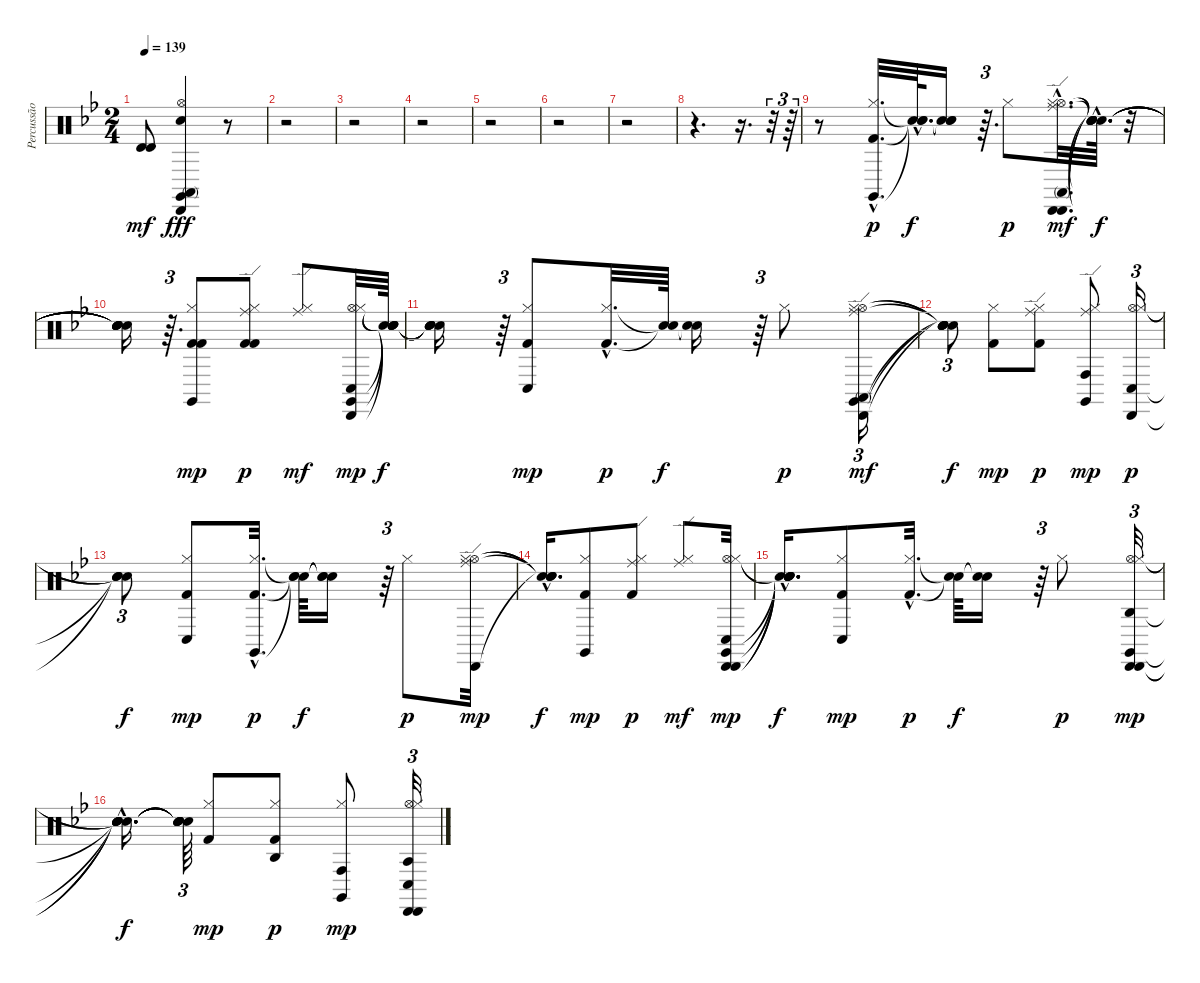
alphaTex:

\track ("Percussão" "Percussão") {instrument percussion}
\staff {score}
\articulation defaults
\ts (2 4)
\tempo 139
\clef neutral
\ks bb
("Timbale high (hit)" "Timbale high (hit)").8{dy mf} ("Hi-Hat (open)" "Claves (hit)" "Electric Snare (hit)" "Cabasa (hit)" "Conga high (mute)").4{dy fff} r.8 |
r.2 |
r.2 |
r.2 |
r.2 |
r.2 |
r.2 |
r.4{d} r.16{d} r.32{tu (3 2)} r.64{tu (3 2)} |
r.8 ("Kick (hit) 2"{hac} "Claves (hit)"{hac} "Hi-Hat (closed)"{hac}).32{d dy p} ("Snare (hit)"{hac t} "Snare (hit)"{hac t} "Snare (hit)"{hac t}).64{d dy f} ("Snare (hit)"{t} "Snare (hit)"{t} "Snare (hit)"{t}).16 r.64{d tu (3 2)} "Hi-Hat (closed)".8{dy p} ("Hi-Hat (open)"{hac} "Hi-Hat (closed)"{hac} "Cabasa (hit)"{hac} "Cabasa (hit)"{hac} "Conga high (mute)"{hac} "Ride (edge)"{hac}).32{d dy mf} ("Snare (hit)"{hac t} "Snare (hit)"{hac t} "Snare (hit)"{hac t} "Snare (hit)"{hac t} "Snare (hit)"{hac t} "Snare (hit)"{hac t}).64{d dy f} r.32 |
("Snare (hit)"{t} "Snare (hit)"{t} "Snare (hit)"{t} "Snare (hit)"{t} "Snare (hit)"{t} "Snare (hit)"{t}).16 r.64{d tu (3 2)} ("Hi-Hat (closed)" "Claves (hit)" "Kick (hit) 2" "Kick (hit) 2").8{dy mp} ("Ride (edge)" "Kick (hit) 2" "Kick (hit) 2" "Hi-Hat (closed)").8{dy p} ("Hi-Hat (closed)" "Ride (edge)").8{dy mf} ("Hi-Hat (open)" "Hi-Hat (closed)" "Claves (hit)" "Conga low (hit)" "Cabasa (hit)").32{dy mp} ("Snare (hit)"{t} "Snare (hit)"{t} "Snare (hit)"{t} "Snare (hit)"{t} "Snare (hit)"{t}).64{dy f} |
("Snare (hit)"{t} "Snare (hit)"{t} "Snare (hit)"{t} "Snare (hit)"{t} "Snare (hit)"{t}).16 r.64{tu (3 2)} ("Hi-Hat (closed)" "Conga low (hit)" "Kick (hit) 2").8{dy mp} ("Kick (hit) 2"{hac} "Hi-Hat (closed)"{hac}).32{d dy p} ("Snare (hit)"{t} "Snare (hit)"{t}).64{dy f} ("Snare (hit)"{t} "Snare (hit)"{t}).16 r.64{tu (3 2)} "Hi-Hat (closed)".8{dy p} ("Hi-Hat (open)" "Hi-Hat (closed)" "Claves (hit)" "Cabasa (hit)" "Conga high (mute)" "Ride (edge)").16{tu (3 2) dy mf} |
("Snare (hit)"{t} "Snare (hit)"{t} "Snare (hit)"{t} "Snare (hit)"{t} "Snare (hit)"{t} "Snare (hit)"{t}).8{tu (3 2) dy f} ("Hi-Hat (closed)" "Kick (hit) 2").8{dy mp} ("Ride (edge)" "Kick (hit) 2" "Hi-Hat (closed)").8{dy p} ("Hi-Hat (closed)" "Claves (hit)" "Conga high (hit)" "Ride (edge)").8{dy mp} ("Hi-Hat (open)" "Hi-Hat (closed)" "Conga low (hit)" "Cabasa (hit)").16{tu (3 2) dy p} |
("Snare (hit)"{t} "Snare (hit)"{t} "Snare (hit)"{t} "Snare (hit)"{t}).8{tu (3 2) dy f} ("Hi-Hat (closed)" "Conga low (hit)" "Kick (hit) 2").8{dy mp} ("Kick (hit) 2"{hac} "Claves (hit)"{hac} "Hi-Hat (closed)"{hac}).32{d dy p} ("Snare (hit)"{t} "Snare (hit)"{t} "Snare (hit)"{t}).64{dy f} ("Snare (hit)"{t} "Snare (hit)"{t} "Snare (hit)"{t}).16 r.64{tu (3 2)} "Hi-Hat (closed)".8{dy p} ("Hi-Hat (open)" "Hi-Hat (closed)" "Cabasa (hit)" "Ride (edge)").32{dy mp} |
("Snare (hit)"{hac t} "Snare (hit)"{hac t} "Snare (hit)"{hac t} "Snare (hit)"{hac t}).16{d dy f} ("Hi-Hat (closed)" "Claves (hit)" "Kick (hit) 2").8{dy mp} ("Ride (edge)" "Kick (hit) 2" "Hi-Hat (closed)").8{dy p} ("Hi-Hat (closed)" "Ride (edge)").8{dy mf} ("Hi-Hat (open)" "Hi-Hat (closed)" "Claves (hit)" "Conga low (hit)" "Cabasa (hit)" "Cabasa (hit)").32{dy mp} |
("Snare (hit)"{hac t} "Snare (hit)"{hac t} "Snare (hit)"{hac t} "Snare (hit)"{hac t} "Snare (hit)"{hac t} "Snare (hit)"{hac t}).16{d dy f} ("Hi-Hat (closed)" "Conga low (hit)" "Kick (hit) 2").8{dy mp} ("Kick (hit) 2"{hac} "Hi-Hat (closed)"{hac}).32{d dy p} ("Snare (hit)"{t} "Snare (hit)"{t}).64{dy f} ("Snare (hit)"{t} "Snare (hit)"{t}).16 r.64{tu (3 2)} "Hi-Hat (closed)".8{dy p} ("Agogo high (hit)" "Hi-Hat (open)" "Hi-Hat (closed)" "Claves (hit)" "Cabasa (hit)" "Cabasa (hit)").32{tu (3 2) dy mp} |
("Snare (hit)"{hac t} "Snare (hit)"{hac t} "Snare (hit)"{hac t} "Snare (hit)"{hac t} "Snare (hit)"{hac t} "Snare (hit)"{hac t}).16{d dy f} ("Snare (hit)"{t} "Snare (hit)"{t} "Snare (hit)"{t} "Snare (hit)"{t} "Snare (hit)"{t} "Snare (hit)"{t}).64{tu (3 2)} ("Hi-Hat (closed)" "Kick (hit) 2").8{dy mp} ("Agogo high (hit)" "Kick (hit) 2" "Hi-Hat (closed)").8{dy p} ("Hi-Hat (closed)" "Claves (hit)" "Conga high (hit)").8{dy mp} ("Agogo tow (hit)" "Hi-Hat (open)" "Hi-Hat (closed)" "Conga low (hit)" "Cabasa (hit)" "Cabasa (hit)").32{tu (3 2)}
